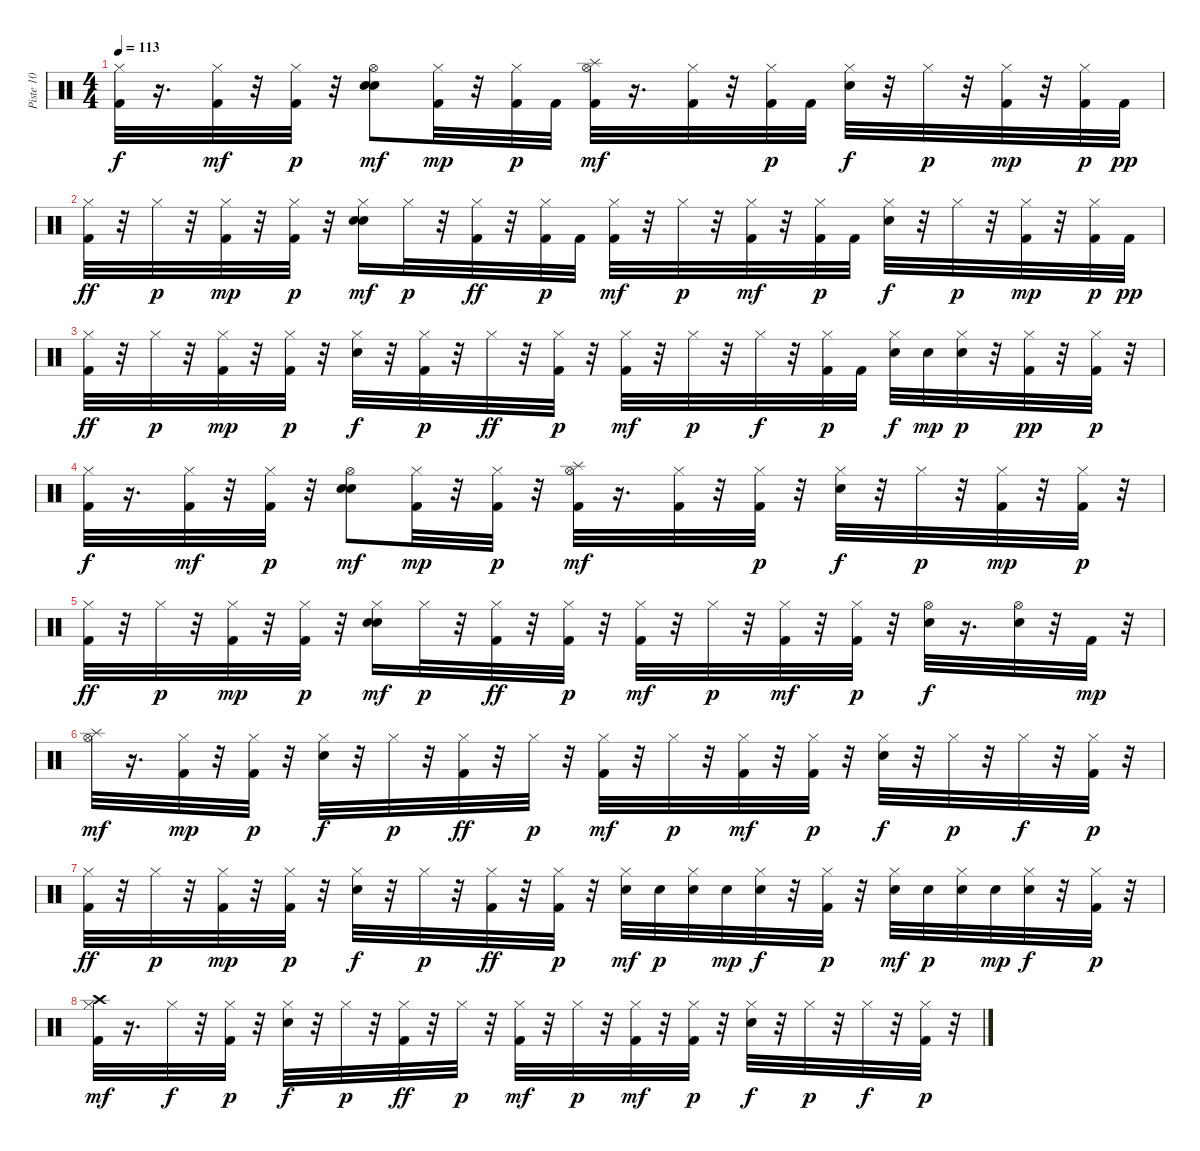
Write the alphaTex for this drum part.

\track ("Piste 10" "Piste 10") {instrument percussion}
\staff {score}
\articulation defaults
\ts (4 4)
\tempo 113
\clef neutral
\ks c
("Kick (hit) 2" "Hi-Hat (closed)").32{dy f} r.16{d} ("Kick (hit) 2" "Hi-Hat (closed)").32{dy mf} r.32 ("Kick (hit) 2" "Hi-Hat (closed)").32{dy p} r.32 ("Electric Snare (hit)" "Electric Snare (hit)" "Hi-Hat (open)").8{dy mf} ("Kick (hit) 2" "Hi-Hat (closed)").32{dy mp} r.32 ("Kick (hit) 2" "Hi-Hat (closed)").32{dy p} "Kick (hit) 2".32 ("Kick (hit) 2" "Hi-Hat (open)" "Splash (hit)").32{dy mf} r.16{d} ("Kick (hit) 2" "Hi-Hat (closed)").32 r.32 ("Kick (hit) 2" "Hi-Hat (closed)").32{dy p} "Kick (hit) 2".32 ("Electric Snare (hit)" "Hi-Hat (closed)").32{dy f} r.32 "Hi-Hat (closed)".32{dy p} r.32 ("Kick (hit) 2" "Hi-Hat (closed)").32{dy mp} r.32 ("Kick (hit) 2" "Hi-Hat (closed)").32{dy p} "Kick (hit) 2".32{dy pp} |
("Kick (hit) 2" "Hi-Hat (closed)").32{dy ff} r.32 "Hi-Hat (closed)".32{dy p} r.32 ("Kick (hit) 2" "Hi-Hat (closed)").32{dy mp} r.32 ("Kick (hit) 2" "Hi-Hat (closed)").32{dy p} r.32 ("Electric Snare (hit)" "Electric Snare (hit)" "Hi-Hat (closed)").16{dy mf} "Hi-Hat (closed)".32{dy p} r.32 ("Kick (hit) 2" "Hi-Hat (closed)").32{dy ff} r.32 ("Kick (hit) 2" "Hi-Hat (closed)").32{dy p} "Kick (hit) 2".32 ("Kick (hit) 2" "Hi-Hat (closed)").32{dy mf} r.32 "Hi-Hat (closed)".32{dy p} r.32 ("Kick (hit) 2" "Hi-Hat (closed)").32{dy mf} r.32 ("Kick (hit) 2" "Hi-Hat (closed)").32{dy p} "Kick (hit) 2".32 ("Electric Snare (hit)" "Hi-Hat (closed)").32{dy f} r.32 "Hi-Hat (closed)".32{dy p} r.32 ("Kick (hit) 2" "Hi-Hat (closed)").32{dy mp} r.32 ("Kick (hit) 2" "Hi-Hat (closed)").32{dy p} "Kick (hit) 2".32{dy pp} |
("Kick (hit) 2" "Hi-Hat (closed)").32{dy ff} r.32 "Hi-Hat (closed)".32{dy p} r.32 ("Kick (hit) 2" "Hi-Hat (closed)").32{dy mp} r.32 ("Kick (hit) 2" "Hi-Hat (closed)").32{dy p} r.32 ("Electric Snare (hit)" "Hi-Hat (closed)").32{dy f} r.32 ("Kick (hit) 2" "Hi-Hat (closed)").32{dy p} r.32 "Hi-Hat (closed)".32{dy ff} r.32 ("Kick (hit) 2" "Hi-Hat (closed)").32{dy p} r.32 ("Kick (hit) 2" "Hi-Hat (closed)").32{dy mf} r.32 "Hi-Hat (closed)".32{dy p} r.32 "Hi-Hat (closed)".32{dy f} r.32 ("Kick (hit) 2" "Hi-Hat (closed)").32{dy p} "Kick (hit) 2".32 ("Electric Snare (hit)" "Hi-Hat (closed)").32{dy f} "Electric Snare (hit)".32{dy mp} ("Electric Snare (hit)" "Hi-Hat (closed)").32{dy p} r.32 ("Kick (hit) 2" "Hi-Hat (closed)").32{dy pp} r.32 ("Kick (hit) 2" "Hi-Hat (closed)").32{dy p} r.32 |
("Kick (hit) 2" "Hi-Hat (closed)").32{dy f} r.16{d} ("Kick (hit) 2" "Hi-Hat (closed)").32{dy mf} r.32 ("Kick (hit) 2" "Hi-Hat (closed)").32{dy p} r.32 ("Electric Snare (hit)" "Electric Snare (hit)" "Hi-Hat (open)").8{dy mf} ("Kick (hit) 2" "Hi-Hat (closed)").32{dy mp} r.32 ("Kick (hit) 2" "Hi-Hat (closed)").32{dy p} r.32 ("Kick (hit) 2" "Hi-Hat (open)" "Splash (hit)").32{dy mf} r.16{d} ("Kick (hit) 2" "Hi-Hat (closed)").32 r.32 ("Kick (hit) 2" "Hi-Hat (closed)").32{dy p} r.32 ("Electric Snare (hit)" "Hi-Hat (closed)").32{dy f} r.32 "Hi-Hat (closed)".32{dy p} r.32 ("Kick (hit) 2" "Hi-Hat (closed)").32{dy mp} r.32 ("Kick (hit) 2" "Hi-Hat (closed)").32{dy p} r.32 |
("Kick (hit) 2" "Hi-Hat (closed)").32{dy ff} r.32 "Hi-Hat (closed)".32{dy p} r.32 ("Kick (hit) 2" "Hi-Hat (closed)").32{dy mp} r.32 ("Kick (hit) 2" "Hi-Hat (closed)").32{dy p} r.32 ("Electric Snare (hit)" "Electric Snare (hit)" "Hi-Hat (closed)").16{dy mf} "Hi-Hat (closed)".32{dy p} r.32 ("Kick (hit) 2" "Hi-Hat (closed)").32{dy ff} r.32 ("Kick (hit) 2" "Hi-Hat (closed)").32{dy p} r.32 ("Kick (hit) 2" "Hi-Hat (closed)").32{dy mf} r.32 "Hi-Hat (closed)".32{dy p} r.32 ("Kick (hit) 2" "Hi-Hat (closed)").32{dy mf} r.32 ("Kick (hit) 2" "Hi-Hat (closed)").32{dy p} r.32 ("Electric Snare (hit)" "Hi-Hat (open)").32{dy f} r.16{d} ("Electric Snare (hit)" "Hi-Hat (open)").32 r.32 "Kick (hit) 2".32{dy mp} r.32 |
("Hi-Hat (open)" "Splash (hit)").32{dy mf} r.16{d} ("Kick (hit) 2" "Hi-Hat (closed)").32{dy mp} r.32 ("Kick (hit) 2" "Hi-Hat (closed)").32{dy p} r.32 ("Electric Snare (hit)" "Hi-Hat (closed)").32{dy f} r.32 "Hi-Hat (closed)".32{dy p} r.32 ("Kick (hit) 2" "Hi-Hat (closed)").32{dy ff} r.32 "Hi-Hat (closed)".32{dy p} r.32 ("Kick (hit) 2" "Hi-Hat (closed)").32{dy mf} r.32 "Hi-Hat (closed)".32{dy p} r.32 ("Kick (hit) 2" "Hi-Hat (closed)").32{dy mf} r.32 ("Kick (hit) 2" "Hi-Hat (closed)").32{dy p} r.32 ("Electric Snare (hit)" "Hi-Hat (closed)").32{dy f} r.32 "Hi-Hat (closed)".32{dy p} r.32 "Hi-Hat (closed)".32{dy f} r.32 ("Kick (hit) 2" "Hi-Hat (closed)").32{dy p} r.32 |
("Kick (hit) 2" "Hi-Hat (closed)").32{dy ff} r.32 "Hi-Hat (closed)".32{dy p} r.32 ("Kick (hit) 2" "Hi-Hat (closed)").32{dy mp} r.32 ("Kick (hit) 2" "Hi-Hat (closed)").32{dy p} r.32 ("Electric Snare (hit)" "Hi-Hat (closed)").32{dy f} r.32 "Hi-Hat (closed)".32{dy p} r.32 ("Kick (hit) 2" "Hi-Hat (closed)").32{dy ff} r.32 ("Kick (hit) 2" "Hi-Hat (closed)").32{dy p} r.32 ("Electric Snare (hit)" "Hi-Hat (closed)").32{dy mf} "Electric Snare (hit)".32{dy p} ("Electric Snare (hit)" "Hi-Hat (closed)").32 "Electric Snare (hit)".32{dy mp} ("Electric Snare (hit)" "Hi-Hat (closed)").32{dy f} r.32 ("Kick (hit) 2" "Hi-Hat (closed)").32{dy p} r.32 ("Electric Snare (hit)" "Hi-Hat (closed)").32{dy mf} "Electric Snare (hit)".32{dy p} ("Electric Snare (hit)" "Hi-Hat (closed)").32 "Electric Snare (hit)".32{dy mp} ("Electric Snare (hit)" "Hi-Hat (closed)").32{dy f} r.32 ("Kick (hit) 2" "Hi-Hat (closed)").32{dy p} r.32 |
("Kick (hit) 2" "Hi-Hat (closed)" "Crash high (hit)").32{dy mf} r.16{d} "Hi-Hat (closed)".32{dy f} r.32 ("Kick (hit) 2" "Hi-Hat (closed)").32{dy p} r.32 ("Electric Snare (hit)" "Hi-Hat (closed)").32{dy f} r.32 "Hi-Hat (closed)".32{dy p} r.32 ("Kick (hit) 2" "Hi-Hat (closed)").32{dy ff} r.32 "Hi-Hat (closed)".32{dy p} r.32 ("Kick (hit) 2" "Hi-Hat (closed)").32{dy mf} r.32 "Hi-Hat (closed)".32{dy p} r.32 ("Kick (hit) 2" "Hi-Hat (closed)").32{dy mf} r.32 ("Kick (hit) 2" "Hi-Hat (closed)").32{dy p} r.32 ("Electric Snare (hit)" "Hi-Hat (closed)").32{dy f} r.32 "Hi-Hat (closed)".32{dy p} r.32 "Hi-Hat (closed)".32{dy f} r.32 ("Kick (hit) 2" "Hi-Hat (closed)").32{dy p} r.32
